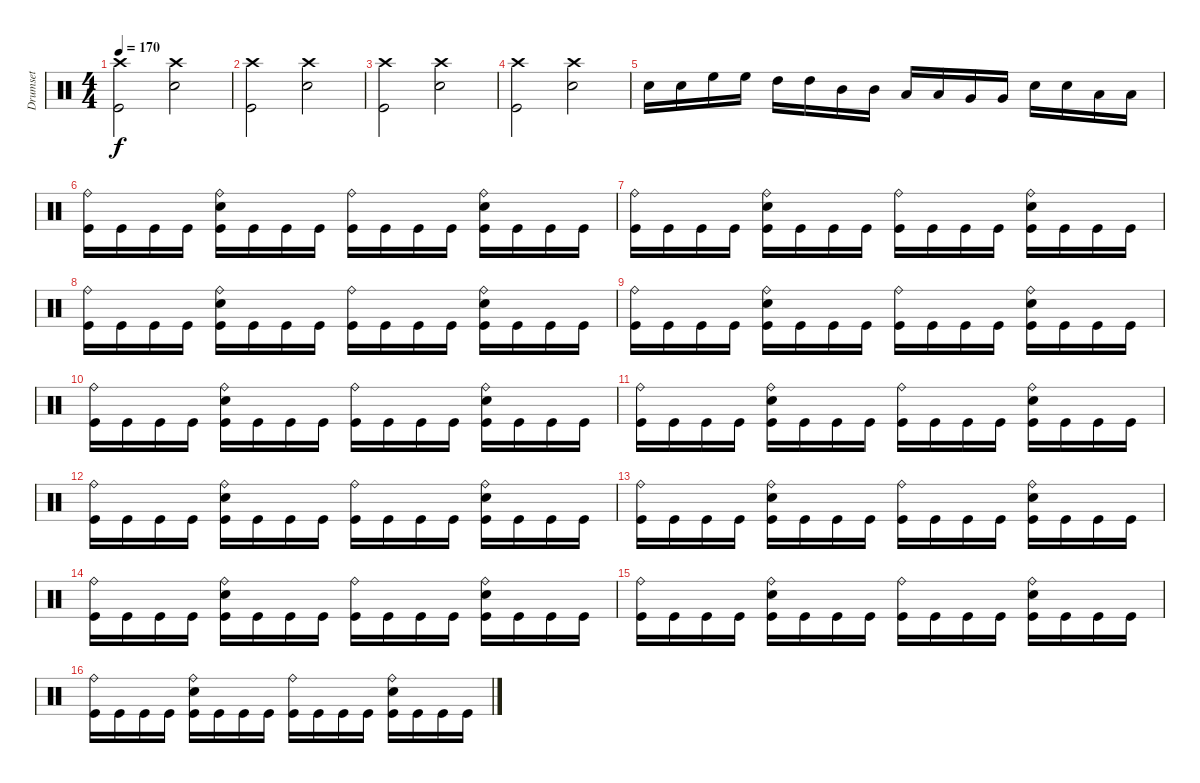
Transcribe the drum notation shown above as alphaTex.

\track ("Drumset" "Drumset") {instrument percussion}
\staff {score}
\articulation defaults
\ts (4 4)
\tempo 170
\clef neutral
\ks c
("Crash high (hit)" "Kick (hit)").2{dy f} ("Crash high (hit)" "Snare (hit) 2").2 |
("Crash high (hit)" "Kick (hit)").2 ("Crash high (hit)" "Snare (hit) 2").2 |
("Crash high (hit)" "Kick (hit)").2 ("Crash high (hit)" "Snare (hit) 2").2 |
("Crash high (hit)" "Kick (hit)").2 ("Crash high (hit)" "Snare (hit) 2").2 |
"Snare (hit) 2".16 "Snare (hit) 2".16 "High Floor Tom (hit)".16 "High Floor Tom (hit)".16 "High Tom (hit)".16 "High Tom (hit)".16 "Mid Tom (hit)".16 "Mid Tom (hit)".16 "Low Tom (hit)".16 "Low Tom (hit)".16 "Very Low Tom (hit)".16 "Very Low Tom (hit)".16 "Snare (hit) 2".16 "Snare (hit) 2".16 "Low Tom (hit)".16 "Low Tom (hit)".16 |
("Ride (bell)" "Kick (hit)").16 "Kick (hit)".16 "Kick (hit)".16 "Kick (hit)".16 ("Ride (bell)" "Snare (hit) 2" "Kick (hit)").16 "Kick (hit)".16 "Kick (hit)".16 "Kick (hit)".16 ("Ride (bell)" "Kick (hit)").16 "Kick (hit)".16 "Kick (hit)".16 "Kick (hit)".16 ("Ride (bell)" "Snare (hit) 2" "Kick (hit)").16 "Kick (hit)".16 "Kick (hit)".16 "Kick (hit)".16 |
("Ride (bell)" "Kick (hit)").16 "Kick (hit)".16 "Kick (hit)".16 "Kick (hit)".16 ("Ride (bell)" "Snare (hit) 2" "Kick (hit)").16 "Kick (hit)".16 "Kick (hit)".16 "Kick (hit)".16 ("Ride (bell)" "Kick (hit)").16 "Kick (hit)".16 "Kick (hit)".16 "Kick (hit)".16 ("Ride (bell)" "Snare (hit) 2" "Kick (hit)").16 "Kick (hit)".16 "Kick (hit)".16 "Kick (hit)".16 |
("Ride (bell)" "Kick (hit)").16 "Kick (hit)".16 "Kick (hit)".16 "Kick (hit)".16 ("Ride (bell)" "Snare (hit) 2" "Kick (hit)").16 "Kick (hit)".16 "Kick (hit)".16 "Kick (hit)".16 ("Ride (bell)" "Kick (hit)").16 "Kick (hit)".16 "Kick (hit)".16 "Kick (hit)".16 ("Ride (bell)" "Snare (hit) 2" "Kick (hit)").16 "Kick (hit)".16 "Kick (hit)".16 "Kick (hit)".16 |
("Ride (bell)" "Kick (hit)").16 "Kick (hit)".16 "Kick (hit)".16 "Kick (hit)".16 ("Ride (bell)" "Snare (hit) 2" "Kick (hit)").16 "Kick (hit)".16 "Kick (hit)".16 "Kick (hit)".16 ("Ride (bell)" "Kick (hit)").16 "Kick (hit)".16 "Kick (hit)".16 "Kick (hit)".16 ("Ride (bell)" "Snare (hit) 2" "Kick (hit)").16 "Kick (hit)".16 "Kick (hit)".16 "Kick (hit)".16 |
("Ride (bell)" "Kick (hit)").16 "Kick (hit)".16 "Kick (hit)".16 "Kick (hit)".16 ("Ride (bell)" "Snare (hit) 2" "Kick (hit)").16 "Kick (hit)".16 "Kick (hit)".16 "Kick (hit)".16 ("Ride (bell)" "Kick (hit)").16 "Kick (hit)".16 "Kick (hit)".16 "Kick (hit)".16 ("Ride (bell)" "Snare (hit) 2" "Kick (hit)").16 "Kick (hit)".16 "Kick (hit)".16 "Kick (hit)".16 |
("Ride (bell)" "Kick (hit)").16 "Kick (hit)".16 "Kick (hit)".16 "Kick (hit)".16 ("Ride (bell)" "Snare (hit) 2" "Kick (hit)").16 "Kick (hit)".16 "Kick (hit)".16 "Kick (hit)".16 ("Ride (bell)" "Kick (hit)").16 "Kick (hit)".16 "Kick (hit)".16 "Kick (hit)".16 ("Ride (bell)" "Snare (hit) 2" "Kick (hit)").16 "Kick (hit)".16 "Kick (hit)".16 "Kick (hit)".16 |
("Ride (bell)" "Kick (hit)").16 "Kick (hit)".16 "Kick (hit)".16 "Kick (hit)".16 ("Ride (bell)" "Snare (hit) 2" "Kick (hit)").16 "Kick (hit)".16 "Kick (hit)".16 "Kick (hit)".16 ("Ride (bell)" "Kick (hit)").16 "Kick (hit)".16 "Kick (hit)".16 "Kick (hit)".16 ("Ride (bell)" "Snare (hit) 2" "Kick (hit)").16 "Kick (hit)".16 "Kick (hit)".16 "Kick (hit)".16 |
("Ride (bell)" "Kick (hit)").16 "Kick (hit)".16 "Kick (hit)".16 "Kick (hit)".16 ("Ride (bell)" "Snare (hit) 2" "Kick (hit)").16 "Kick (hit)".16 "Kick (hit)".16 "Kick (hit)".16 ("Ride (bell)" "Kick (hit)").16 "Kick (hit)".16 "Kick (hit)".16 "Kick (hit)".16 ("Ride (bell)" "Snare (hit) 2" "Kick (hit)").16 "Kick (hit)".16 "Kick (hit)".16 "Kick (hit)".16 |
("Ride (bell)" "Kick (hit)").16 "Kick (hit)".16 "Kick (hit)".16 "Kick (hit)".16 ("Ride (bell)" "Snare (hit) 2" "Kick (hit)").16 "Kick (hit)".16 "Kick (hit)".16 "Kick (hit)".16 ("Ride (bell)" "Kick (hit)").16 "Kick (hit)".16 "Kick (hit)".16 "Kick (hit)".16 ("Ride (bell)" "Snare (hit) 2" "Kick (hit)").16 "Kick (hit)".16 "Kick (hit)".16 "Kick (hit)".16 |
("Ride (bell)" "Kick (hit)").16 "Kick (hit)".16 "Kick (hit)".16 "Kick (hit)".16 ("Ride (bell)" "Snare (hit) 2" "Kick (hit)").16 "Kick (hit)".16 "Kick (hit)".16 "Kick (hit)".16 ("Ride (bell)" "Kick (hit)").16 "Kick (hit)".16 "Kick (hit)".16 "Kick (hit)".16 ("Ride (bell)" "Snare (hit) 2" "Kick (hit)").16 "Kick (hit)".16 "Kick (hit)".16 "Kick (hit)".16 |
("Ride (bell)" "Kick (hit)").16 "Kick (hit)".16 "Kick (hit)".16 "Kick (hit)".16 ("Ride (bell)" "Snare (hit) 2" "Kick (hit)").16 "Kick (hit)".16 "Kick (hit)".16 "Kick (hit)".16 ("Ride (bell)" "Kick (hit)").16 "Kick (hit)".16 "Kick (hit)".16 "Kick (hit)".16 ("Ride (bell)" "Snare (hit) 2" "Kick (hit)").16 "Kick (hit)".16 "Kick (hit)".16 "Kick (hit)".16
